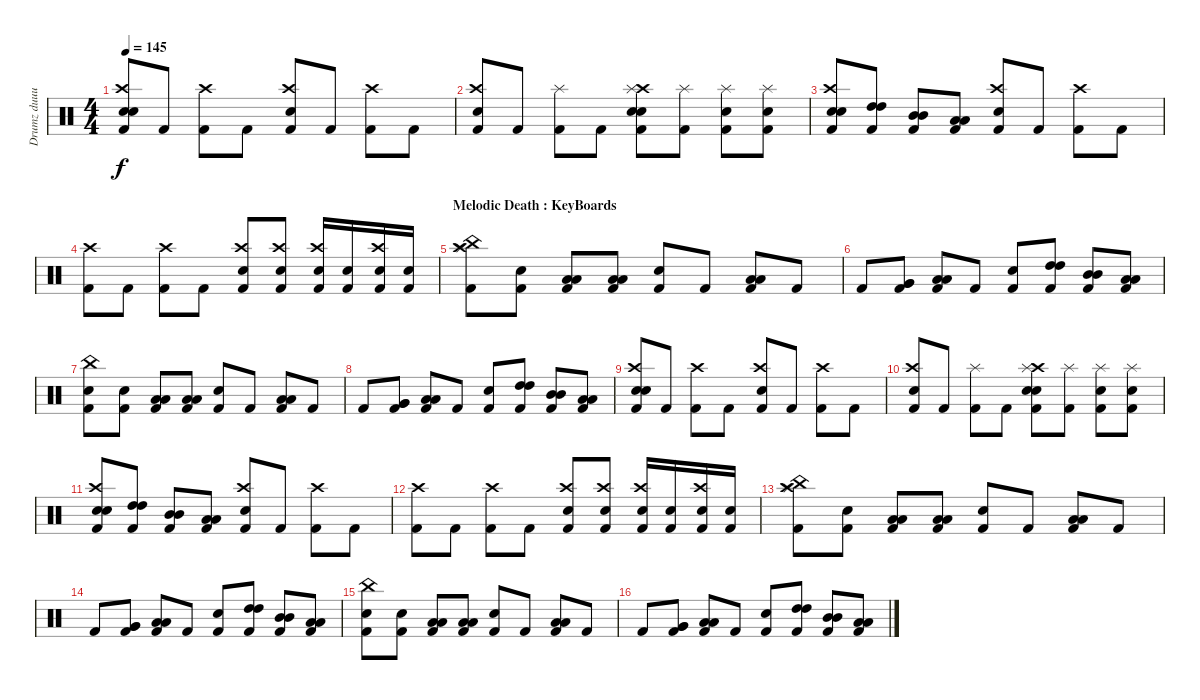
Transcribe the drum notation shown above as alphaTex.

\track ("Drumz duuuuude" "Drumz duuu") {instrument percussion}
\staff {score}
\articulation defaults
\ts (4 4)
\tempo 145
\clef neutral
\ks c
("Kick (hit) 2" "Crash high (hit)" "Snare (hit) 2" "Electric Snare (hit)").8{dy f} "Kick (hit) 2".8 ("Kick (hit) 2" "Crash high (hit)").8 "Kick (hit) 2".8 ("Kick (hit) 2" "Crash high (hit)" "Electric Snare (hit)").8 "Kick (hit) 2".8 ("Kick (hit) 2" "Crash high (hit)").8 "Kick (hit) 2".8 |
("Crash high (hit)" "Kick (hit) 2" "Electric Snare (hit)").8 "Kick (hit) 2".8 ("Kick (hit) 2" "Splash (hit)").8 "Kick (hit) 2".8 ("Crash high (hit)" "Kick (hit) 2" "Splash (hit)" "Snare (hit) 2" "Electric Snare (hit)").8 ("Kick (hit) 2" "Splash (hit)").8 ("Kick (hit) 2" "Splash (hit)" "Electric Snare (hit)").8 ("Kick (hit) 2" "Splash (hit)" "Electric Snare (hit)").8 |
("Kick (hit) 2" "Crash high (hit)" "Snare (hit) 2" "Electric Snare (hit)").8 ("Kick (hit) 2" "High Tom (hit)" "High Tom (hit)").8 ("Kick (hit) 2" "Mid Tom (hit)" "Mid Tom (hit)").8 ("Kick (hit) 2" "Low Tom (hit)" "Low Tom (hit)").8 ("Kick (hit) 2" "Crash high (hit)" "Electric Snare (hit)").8 "Kick (hit) 2".8 ("Kick (hit) 2" "Crash high (hit)").8 "Kick (hit) 2".8 |
("Crash high (hit)" "Kick (hit) 2").8 "Kick (hit) 2".8 ("Crash high (hit)" "Kick (hit) 2").8 "Kick (hit) 2".8 ("Crash high (hit)" "Kick (hit) 2" "Snare (hit) 2").8 ("Crash high (hit)" "Kick (hit) 2" "Electric Snare (hit)").8 ("Crash high (hit)" "Kick (hit) 2" "Electric Snare (hit)").16 ("Kick (hit) 2" "Electric Snare (hit)").16 ("Crash high (hit)" "Kick (hit) 2" "Electric Snare (hit)").16 ("Kick (hit) 2" "Electric Snare (hit)").16 |
\section ("" "Melodic Death : KeyBoards")
("China (hit)" "Kick (hit) 2" "Splash (hit)" "Crash high (hit)").8 ("Kick (hit) 2" "Electric Snare (hit)").8 ("Kick (hit) 2" "Low Tom (hit)" "Low Tom (hit)").8 ("Kick (hit) 2" "Low Tom (hit)" "Low Tom (hit)").8 ("Kick (hit) 2" "Snare (hit) 2").8 "Kick (hit) 2".8 ("Kick (hit) 2" "Low Tom (hit)" "Low Tom (hit)").8 "Kick (hit) 2".8 |
"Kick (hit) 2".8 ("Kick (hit) 2" "Very Low Tom (hit)" "Very Low Tom (hit)").8 ("Kick (hit) 2" "Low Floor Tom (hit)" "Low Floor Tom (hit)").8 "Kick (hit) 2".8 ("Kick (hit) 2" "Snare (hit) 2").8 ("Kick (hit) 2" "High Tom (hit)" "High Tom (hit)").8 ("Kick (hit) 2" "Mid Tom (hit)" "Mid Tom (hit)").8 ("Kick (hit) 2" "Low Tom (hit)" "Low Tom (hit)").8 |
("China (hit)" "Kick (hit) 2" "Electric Snare (hit)").8 ("Kick (hit) 2" "Electric Snare (hit)").8 ("Kick (hit) 2" "Low Tom (hit)" "Low Tom (hit)").8 ("Kick (hit) 2" "Low Tom (hit)" "Low Tom (hit)").8 ("Kick (hit) 2" "Snare (hit) 2").8 "Kick (hit) 2".8 ("Kick (hit) 2" "Low Tom (hit)" "Low Tom (hit)").8 "Kick (hit) 2".8 |
"Kick (hit) 2".8 ("Kick (hit) 2" "Very Low Tom (hit)" "Very Low Tom (hit)").8 ("Kick (hit) 2" "Low Floor Tom (hit)" "Low Floor Tom (hit)").8 "Kick (hit) 2".8 ("Kick (hit) 2" "Snare (hit) 2").8 ("Kick (hit) 2" "High Tom (hit)" "High Tom (hit)").8 ("Kick (hit) 2" "Mid Tom (hit)" "Mid Tom (hit)").8 ("Kick (hit) 2" "Low Tom (hit)" "Low Tom (hit)").8 |
("Kick (hit) 2" "Crash high (hit)" "Snare (hit) 2" "Electric Snare (hit)").8 "Kick (hit) 2".8 ("Kick (hit) 2" "Crash high (hit)").8 "Kick (hit) 2".8 ("Kick (hit) 2" "Crash high (hit)" "Electric Snare (hit)").8 "Kick (hit) 2".8 ("Kick (hit) 2" "Crash high (hit)").8 "Kick (hit) 2".8 |
("Crash high (hit)" "Kick (hit) 2" "Electric Snare (hit)").8 "Kick (hit) 2".8 ("Kick (hit) 2" "Splash (hit)").8 "Kick (hit) 2".8 ("Crash high (hit)" "Kick (hit) 2" "Splash (hit)" "Snare (hit) 2" "Electric Snare (hit)").8 ("Kick (hit) 2" "Splash (hit)").8 ("Kick (hit) 2" "Splash (hit)" "Electric Snare (hit)").8 ("Kick (hit) 2" "Splash (hit)" "Electric Snare (hit)").8 |
("Kick (hit) 2" "Crash high (hit)" "Snare (hit) 2" "Electric Snare (hit)").8 ("Kick (hit) 2" "High Tom (hit)" "High Tom (hit)").8 ("Kick (hit) 2" "Mid Tom (hit)" "Mid Tom (hit)").8 ("Kick (hit) 2" "Low Tom (hit)" "Low Tom (hit)").8 ("Kick (hit) 2" "Crash high (hit)" "Electric Snare (hit)").8 "Kick (hit) 2".8 ("Kick (hit) 2" "Crash high (hit)").8 "Kick (hit) 2".8 |
("Crash high (hit)" "Kick (hit) 2").8 "Kick (hit) 2".8 ("Crash high (hit)" "Kick (hit) 2").8 "Kick (hit) 2".8 ("Crash high (hit)" "Kick (hit) 2" "Snare (hit) 2").8 ("Crash high (hit)" "Kick (hit) 2" "Electric Snare (hit)").8 ("Crash high (hit)" "Kick (hit) 2" "Electric Snare (hit)").16 ("Kick (hit) 2" "Electric Snare (hit)").16 ("Crash high (hit)" "Kick (hit) 2" "Electric Snare (hit)").16 ("Kick (hit) 2" "Electric Snare (hit)").16 |
("China (hit)" "Kick (hit) 2" "Splash (hit)" "Crash high (hit)").8 ("Kick (hit) 2" "Electric Snare (hit)").8 ("Kick (hit) 2" "Low Tom (hit)" "Low Tom (hit)").8 ("Kick (hit) 2" "Low Tom (hit)" "Low Tom (hit)").8 ("Kick (hit) 2" "Snare (hit) 2").8 "Kick (hit) 2".8 ("Kick (hit) 2" "Low Tom (hit)" "Low Tom (hit)").8 "Kick (hit) 2".8 |
"Kick (hit) 2".8 ("Kick (hit) 2" "Very Low Tom (hit)" "Very Low Tom (hit)").8 ("Kick (hit) 2" "Low Floor Tom (hit)" "Low Floor Tom (hit)").8 "Kick (hit) 2".8 ("Kick (hit) 2" "Snare (hit) 2").8 ("Kick (hit) 2" "High Tom (hit)" "High Tom (hit)").8 ("Kick (hit) 2" "Mid Tom (hit)" "Mid Tom (hit)").8 ("Kick (hit) 2" "Low Tom (hit)" "Low Tom (hit)").8 |
("China (hit)" "Kick (hit) 2" "Electric Snare (hit)").8 ("Kick (hit) 2" "Electric Snare (hit)").8 ("Kick (hit) 2" "Low Tom (hit)" "Low Tom (hit)").8 ("Kick (hit) 2" "Low Tom (hit)" "Low Tom (hit)").8 ("Kick (hit) 2" "Snare (hit) 2").8 "Kick (hit) 2".8 ("Kick (hit) 2" "Low Tom (hit)" "Low Tom (hit)").8 "Kick (hit) 2".8 |
"Kick (hit) 2".8 ("Kick (hit) 2" "Very Low Tom (hit)" "Very Low Tom (hit)").8 ("Kick (hit) 2" "Low Floor Tom (hit)" "Low Floor Tom (hit)").8 "Kick (hit) 2".8 ("Kick (hit) 2" "Snare (hit) 2").8 ("Kick (hit) 2" "High Tom (hit)" "High Tom (hit)").8 ("Kick (hit) 2" "Mid Tom (hit)" "Mid Tom (hit)").8 ("Kick (hit) 2" "Low Tom (hit)" "Low Tom (hit)").8
